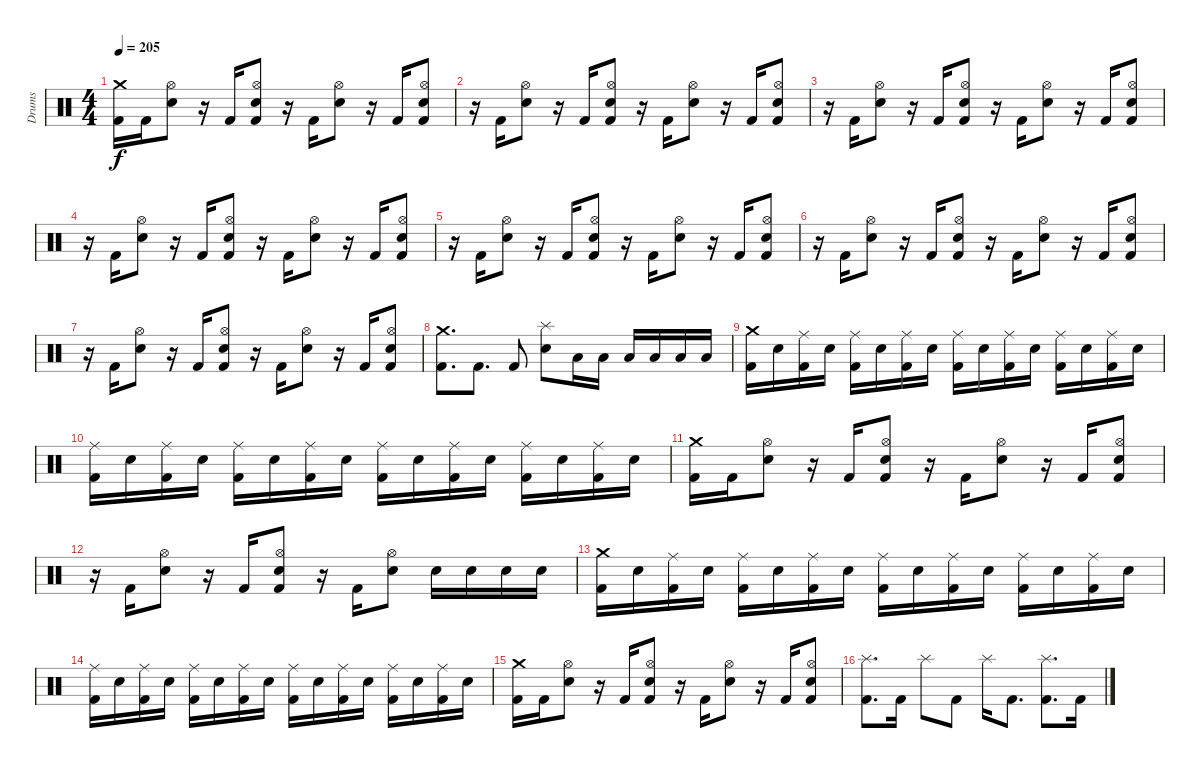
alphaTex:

\track ("Drums" "Drums") {instrument percussion}
\staff {score}
\articulation defaults
\ts (4 4)
\tempo 205
\clef neutral
\ks c
("Crash medium (hit)" "Kick (hit) 2").16{dy f} "Kick (hit) 2".16 ("Hi-Hat (open)" "Electric Snare (hit)").8 r.16 "Kick (hit) 2".16 ("Hi-Hat (open)" "Electric Snare (hit)" "Kick (hit) 2").8 r.16 "Kick (hit) 2".16 ("Hi-Hat (open)" "Electric Snare (hit)").8 r.16 "Kick (hit) 2".16 ("Hi-Hat (open)" "Electric Snare (hit)" "Kick (hit) 2").8 |
r.16 "Kick (hit) 2".16 ("Hi-Hat (open)" "Electric Snare (hit)").8 r.16 "Kick (hit) 2".16 ("Hi-Hat (open)" "Electric Snare (hit)" "Kick (hit) 2").8 r.16 "Kick (hit) 2".16 ("Hi-Hat (open)" "Electric Snare (hit)").8 r.16 "Kick (hit) 2".16 ("Hi-Hat (open)" "Electric Snare (hit)" "Kick (hit) 2").8 |
r.16 "Kick (hit) 2".16 ("Hi-Hat (open)" "Electric Snare (hit)").8 r.16 "Kick (hit) 2".16 ("Hi-Hat (open)" "Electric Snare (hit)" "Kick (hit) 2").8 r.16 "Kick (hit) 2".16 ("Hi-Hat (open)" "Electric Snare (hit)").8 r.16 "Kick (hit) 2".16 ("Hi-Hat (open)" "Electric Snare (hit)" "Kick (hit) 2").8 |
r.16 "Kick (hit) 2".16 ("Hi-Hat (open)" "Electric Snare (hit)").8 r.16 "Kick (hit) 2".16 ("Hi-Hat (open)" "Electric Snare (hit)" "Kick (hit) 2").8 r.16 "Kick (hit) 2".16 ("Hi-Hat (open)" "Electric Snare (hit)").8 r.16 "Kick (hit) 2".16 ("Hi-Hat (open)" "Electric Snare (hit)" "Kick (hit) 2").8 |
r.16 "Kick (hit) 2".16 ("Hi-Hat (open)" "Electric Snare (hit)").8 r.16 "Kick (hit) 2".16 ("Hi-Hat (open)" "Electric Snare (hit)" "Kick (hit) 2").8 r.16 "Kick (hit) 2".16 ("Hi-Hat (open)" "Electric Snare (hit)").8 r.16 "Kick (hit) 2".16 ("Hi-Hat (open)" "Electric Snare (hit)" "Kick (hit) 2").8 |
r.16 "Kick (hit) 2".16 ("Hi-Hat (open)" "Electric Snare (hit)").8 r.16 "Kick (hit) 2".16 ("Hi-Hat (open)" "Electric Snare (hit)" "Kick (hit) 2").8 r.16 "Kick (hit) 2".16 ("Hi-Hat (open)" "Electric Snare (hit)").8 r.16 "Kick (hit) 2".16 ("Hi-Hat (open)" "Electric Snare (hit)" "Kick (hit) 2").8 |
r.16 "Kick (hit) 2".16 ("Hi-Hat (open)" "Electric Snare (hit)").8 r.16 "Kick (hit) 2".16 ("Hi-Hat (open)" "Electric Snare (hit)" "Kick (hit) 2").8 r.16 "Kick (hit) 2".16 ("Hi-Hat (open)" "Electric Snare (hit)").8 r.16 "Kick (hit) 2".16 ("Hi-Hat (open)" "Electric Snare (hit)" "Kick (hit) 2").8 |
("Crash medium (hit)" "Kick (hit) 2").8{d} "Kick (hit) 2".8{d} "Kick (hit) 2".8 ("Splash (hit)" "Electric Snare (hit)").8 "Low Tom (hit)".16 "Low Tom (hit)".16 "Low Floor Tom (hit)".16 "Low Floor Tom (hit)".16 "Low Floor Tom (hit)".16 "Low Floor Tom (hit)".16 |
("Crash medium (hit)" "Kick (hit) 2").16 "Electric Snare (hit)".16 ("Ride (middle)" "Kick (hit) 2").16 "Electric Snare (hit)".16 ("Ride (middle)" "Kick (hit) 2").16 "Electric Snare (hit)".16 ("Ride (middle)" "Kick (hit) 2").16 "Electric Snare (hit)".16 ("Ride (middle)" "Kick (hit) 2").16 "Electric Snare (hit)".16 ("Ride (middle)" "Kick (hit) 2").16 "Electric Snare (hit)".16 ("Ride (middle)" "Kick (hit) 2").16 "Electric Snare (hit)".16 ("Ride (middle)" "Kick (hit) 2").16 "Electric Snare (hit)".16 |
("Ride (middle)" "Kick (hit) 2").16 "Electric Snare (hit)".16 ("Ride (middle)" "Kick (hit) 2").16 "Electric Snare (hit)".16 ("Ride (middle)" "Kick (hit) 2").16 "Electric Snare (hit)".16 ("Ride (middle)" "Kick (hit) 2").16 "Electric Snare (hit)".16 ("Ride (middle)" "Kick (hit) 2").16 "Electric Snare (hit)".16 ("Ride (middle)" "Kick (hit) 2").16 "Electric Snare (hit)".16 ("Ride (middle)" "Kick (hit) 2").16 "Electric Snare (hit)".16 ("Ride (middle)" "Kick (hit) 2").16 "Electric Snare (hit)".16 |
("Crash medium (hit)" "Kick (hit) 2").16 "Kick (hit) 2".16 ("Hi-Hat (open)" "Electric Snare (hit)").8 r.16 "Kick (hit) 2".16 ("Hi-Hat (open)" "Electric Snare (hit)" "Kick (hit) 2").8 r.16 "Kick (hit) 2".16 ("Hi-Hat (open)" "Electric Snare (hit)").8 r.16 "Kick (hit) 2".16 ("Hi-Hat (open)" "Electric Snare (hit)" "Kick (hit) 2").8 |
r.16 "Kick (hit) 2".16 ("Hi-Hat (open)" "Electric Snare (hit)").8 r.16 "Kick (hit) 2".16 ("Hi-Hat (open)" "Electric Snare (hit)" "Kick (hit) 2").8 r.16 "Kick (hit) 2".16 ("Hi-Hat (open)" "Electric Snare (hit)").8 "Electric Snare (hit)".16 "Electric Snare (hit)".16 "Electric Snare (hit)".16 "Electric Snare (hit)".16 |
("Crash medium (hit)" "Kick (hit) 2").16 "Electric Snare (hit)".16 ("Ride (middle)" "Kick (hit) 2").16 "Electric Snare (hit)".16 ("Ride (middle)" "Kick (hit) 2").16 "Electric Snare (hit)".16 ("Ride (middle)" "Kick (hit) 2").16 "Electric Snare (hit)".16 ("Ride (middle)" "Kick (hit) 2").16 "Electric Snare (hit)".16 ("Ride (middle)" "Kick (hit) 2").16 "Electric Snare (hit)".16 ("Ride (middle)" "Kick (hit) 2").16 "Electric Snare (hit)".16 ("Ride (middle)" "Kick (hit) 2").16 "Electric Snare (hit)".16 |
("Ride (middle)" "Kick (hit) 2").16 "Electric Snare (hit)".16 ("Ride (middle)" "Kick (hit) 2").16 "Electric Snare (hit)".16 ("Ride (middle)" "Kick (hit) 2").16 "Electric Snare (hit)".16 ("Ride (middle)" "Kick (hit) 2").16 "Electric Snare (hit)".16 ("Ride (middle)" "Kick (hit) 2").16 "Electric Snare (hit)".16 ("Ride (middle)" "Kick (hit) 2").16 "Electric Snare (hit)".16 ("Ride (middle)" "Kick (hit) 2").16 "Electric Snare (hit)".16 ("Ride (middle)" "Kick (hit) 2").16 "Electric Snare (hit)".16 |
("Crash medium (hit)" "Kick (hit) 2").16 "Kick (hit) 2".16 ("Hi-Hat (open)" "Electric Snare (hit)").8 r.16 "Kick (hit) 2".16 ("Hi-Hat (open)" "Electric Snare (hit)" "Kick (hit) 2").8 r.16 "Kick (hit) 2".16 ("Hi-Hat (open)" "Electric Snare (hit)").8 r.16 "Kick (hit) 2".16 ("Hi-Hat (open)" "Electric Snare (hit)" "Kick (hit) 2").8 |
("Splash (hit)" "Kick (hit) 2").8{d} "Kick (hit) 2".16 "Splash (hit)".8 "Kick (hit) 2".8 "Splash (hit)".16 "Kick (hit) 2".8{d} ("Splash (hit)" "Kick (hit) 2").8{d} "Kick (hit) 2".16
